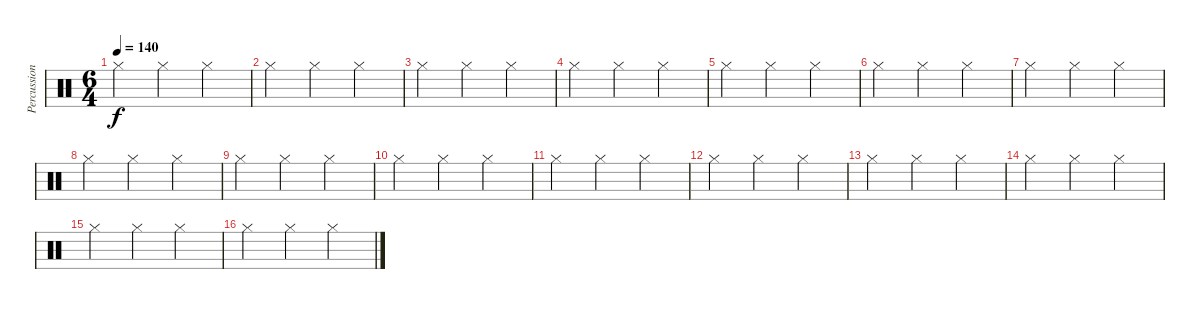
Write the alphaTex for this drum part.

\track ("Percussions" "Percussion") {instrument percussion}
\staff {score}
\articulation defaults
\ts (6 4)
\tempo 140
\clef neutral
\ks c "Hi-Hat (closed)".2{dy f} "Hi-Hat (closed)".2 "Hi-Hat (closed)".2
|
"Hi-Hat (closed)".2 "Hi-Hat (closed)".2 "Hi-Hat (closed)".2 |
"Hi-Hat (closed)".2 "Hi-Hat (closed)".2 "Hi-Hat (closed)".2 |
"Hi-Hat (closed)".2 "Hi-Hat (closed)".2 "Hi-Hat (closed)".2 |
"Hi-Hat (closed)".2 "Hi-Hat (closed)".2 "Hi-Hat (closed)".2 |
"Hi-Hat (closed)".2 "Hi-Hat (closed)".2 "Hi-Hat (closed)".2 |
"Hi-Hat (closed)".2 "Hi-Hat (closed)".2 "Hi-Hat (closed)".2 |
"Hi-Hat (closed)".2 "Hi-Hat (closed)".2 "Hi-Hat (closed)".2 |
"Hi-Hat (closed)".2 "Hi-Hat (closed)".2 "Hi-Hat (closed)".2 |
"Hi-Hat (closed)".2 "Hi-Hat (closed)".2 "Hi-Hat (closed)".2 |
"Hi-Hat (closed)".2 "Hi-Hat (closed)".2 "Hi-Hat (closed)".2 |
"Hi-Hat (closed)".2 "Hi-Hat (closed)".2 "Hi-Hat (closed)".2 |
"Hi-Hat (closed)".2 "Hi-Hat (closed)".2 "Hi-Hat (closed)".2 |
"Hi-Hat (closed)".2 "Hi-Hat (closed)".2 "Hi-Hat (closed)".2 |
"Hi-Hat (closed)".2 "Hi-Hat (closed)".2 "Hi-Hat (closed)".2 |
"Hi-Hat (closed)".2 "Hi-Hat (closed)".2 "Hi-Hat (closed)".2
